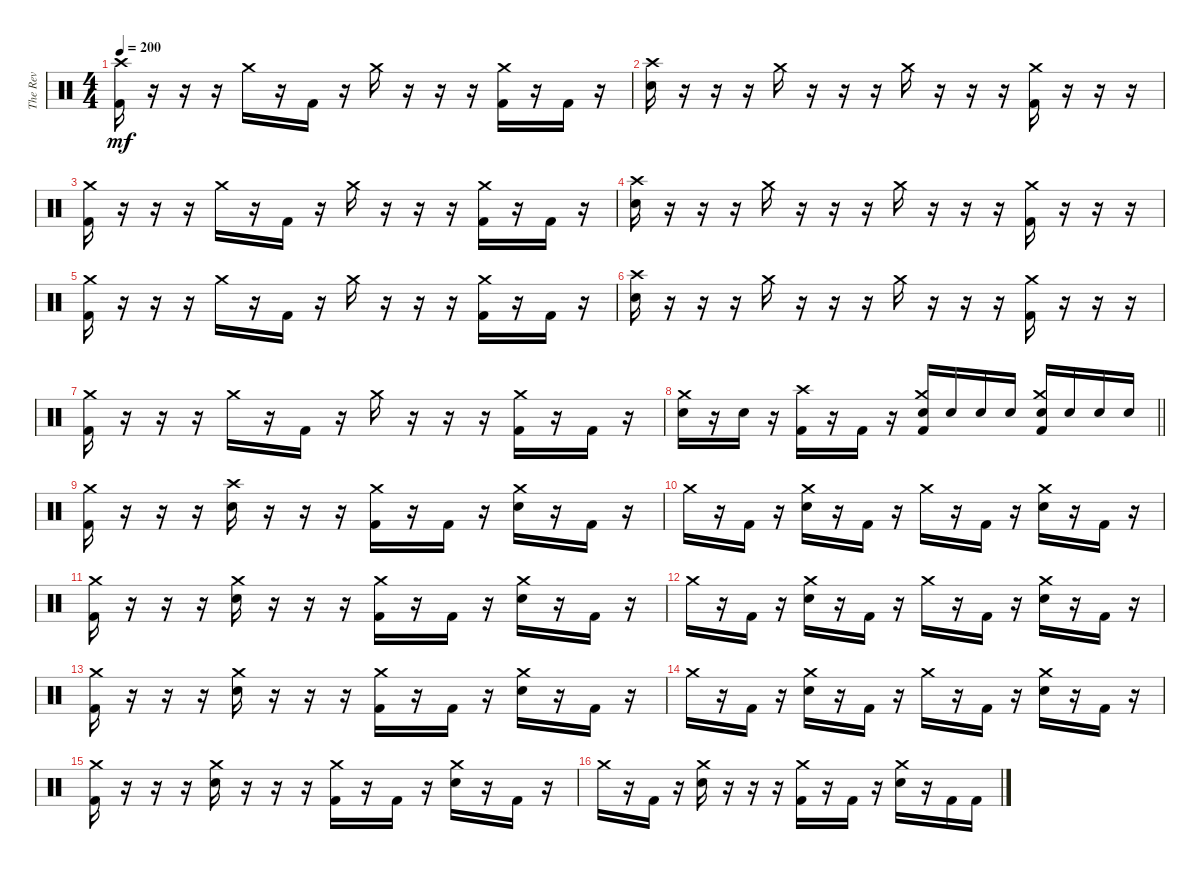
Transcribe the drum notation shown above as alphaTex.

\track ("The Rev" "The Rev") {instrument percussion}
\staff {score}
\articulation defaults
\ts (4 4)
\tempo 200
\clef neutral
\ks c
("Crash high (hit)" "Kick (hit) 2").16{dy mf} r.16 r.16 r.16 "Crash medium (hit)".16 r.16 "Kick (hit) 2".16 r.16 "Crash medium (hit)".16 r.16 r.16 r.16 ("Crash medium (hit)" "Kick (hit) 2").16 r.16 "Kick (hit) 2".16 r.16 |
("Crash high (hit)" "Electric Snare (hit)").16 r.16 r.16 r.16 "Crash medium (hit)".16 r.16 r.16 r.16 "Crash medium (hit)".16 r.16 r.16 r.16 ("Crash medium (hit)" "Kick (hit) 2").16 r.16 r.16 r.16 |
("Crash medium (hit)" "Kick (hit) 2").16 r.16 r.16 r.16 "Crash medium (hit)".16 r.16 "Kick (hit) 2".16 r.16 "Crash medium (hit)".16 r.16 r.16 r.16 ("Crash medium (hit)" "Kick (hit) 2").16 r.16 "Kick (hit) 2".16 r.16 |
("Crash high (hit)" "Electric Snare (hit)").16 r.16 r.16 r.16 "Crash medium (hit)".16 r.16 r.16 r.16 "Crash medium (hit)".16 r.16 r.16 r.16 ("Crash medium (hit)" "Kick (hit) 2").16 r.16 r.16 r.16 |
("Crash medium (hit)" "Kick (hit) 2").16 r.16 r.16 r.16 "Crash medium (hit)".16 r.16 "Kick (hit) 2".16 r.16 "Crash medium (hit)".16 r.16 r.16 r.16 ("Crash medium (hit)" "Kick (hit) 2").16 r.16 "Kick (hit) 2".16 r.16 |
("Crash high (hit)" "Electric Snare (hit)").16 r.16 r.16 r.16 "Crash medium (hit)".16 r.16 r.16 r.16 "Crash medium (hit)".16 r.16 r.16 r.16 ("Crash medium (hit)" "Kick (hit) 2").16 r.16 r.16 r.16 |
("Crash medium (hit)" "Kick (hit) 2").16 r.16 r.16 r.16 "Crash medium (hit)".16 r.16 "Kick (hit) 2".16 r.16 "Crash medium (hit)".16 r.16 r.16 r.16 ("Crash medium (hit)" "Kick (hit) 2").16 r.16 "Kick (hit) 2".16 r.16 |
\barLineRight lightlight
("Crash medium (hit)" "Electric Snare (hit)").16 r.16 "Electric Snare (hit)".16 r.16 ("Crash high (hit)" "Kick (hit) 2").16 r.16 "Kick (hit) 2".16 r.16 ("Crash medium (hit)" "Electric Snare (hit)" "Kick (hit) 2").16 "Electric Snare (hit)".16 "Electric Snare (hit)".16 "Electric Snare (hit)".16 ("Crash medium (hit)" "Electric Snare (hit)" "Kick (hit) 2").16 "Electric Snare (hit)".16 "Electric Snare (hit)".16 "Electric Snare (hit)".16 |
("Crash medium (hit)" "Kick (hit) 2").16 r.16 r.16 r.16 ("Crash high (hit)" "Electric Snare (hit)").16 r.16 r.16 r.16 ("Crash medium (hit)" "Kick (hit) 2").16 r.16 "Kick (hit) 2".16 r.16 ("Crash medium (hit)" "Electric Snare (hit)").16 r.16 "Kick (hit) 2".16 r.16 |
"Crash medium (hit)".16 r.16 "Kick (hit) 2".16 r.16 ("Crash medium (hit)" "Electric Snare (hit)").16 r.16 "Kick (hit) 2".16 r.16 "Crash medium (hit)".16 r.16 "Kick (hit) 2".16 r.16 ("Crash medium (hit)" "Electric Snare (hit)").16 r.16 "Kick (hit) 2".16 r.16 |
("Crash medium (hit)" "Kick (hit) 2").16 r.16 r.16 r.16 ("Crash medium (hit)" "Electric Snare (hit)").16 r.16 r.16 r.16 ("Crash medium (hit)" "Kick (hit) 2").16 r.16 "Kick (hit) 2".16 r.16 ("Crash medium (hit)" "Electric Snare (hit)").16 r.16 "Kick (hit) 2".16 r.16 |
"Crash medium (hit)".16 r.16 "Kick (hit) 2".16 r.16 ("Crash medium (hit)" "Electric Snare (hit)").16 r.16 "Kick (hit) 2".16 r.16 "Crash medium (hit)".16 r.16 "Kick (hit) 2".16 r.16 ("Crash medium (hit)" "Electric Snare (hit)").16 r.16 "Kick (hit) 2".16 r.16 |
("Crash medium (hit)" "Kick (hit) 2").16 r.16 r.16 r.16 ("Crash medium (hit)" "Electric Snare (hit)").16 r.16 r.16 r.16 ("Crash medium (hit)" "Kick (hit) 2").16 r.16 "Kick (hit) 2".16 r.16 ("Crash medium (hit)" "Electric Snare (hit)").16 r.16 "Kick (hit) 2".16 r.16 |
"Crash medium (hit)".16 r.16 "Kick (hit) 2".16 r.16 ("Crash medium (hit)" "Electric Snare (hit)").16 r.16 "Kick (hit) 2".16 r.16 "Crash medium (hit)".16 r.16 "Kick (hit) 2".16 r.16 ("Crash medium (hit)" "Electric Snare (hit)").16 r.16 "Kick (hit) 2".16 r.16 |
("Crash medium (hit)" "Kick (hit) 2").16 r.16 r.16 r.16 ("Crash medium (hit)" "Electric Snare (hit)").16 r.16 r.16 r.16 ("Crash medium (hit)" "Kick (hit) 2").16 r.16 "Kick (hit) 2".16 r.16 ("Crash medium (hit)" "Electric Snare (hit)").16 r.16 "Kick (hit) 2".16 r.16 |
"Crash medium (hit)".16 r.16 "Kick (hit) 2".16 r.16 ("Crash medium (hit)" "Electric Snare (hit)").16 r.16 r.16 r.16 ("Crash medium (hit)" "Kick (hit) 2").16 r.16 "Kick (hit) 2".16 r.16 ("Crash medium (hit)" "Electric Snare (hit)").16 r.16 "Kick (hit) 2".16 "Kick (hit) 2".16
